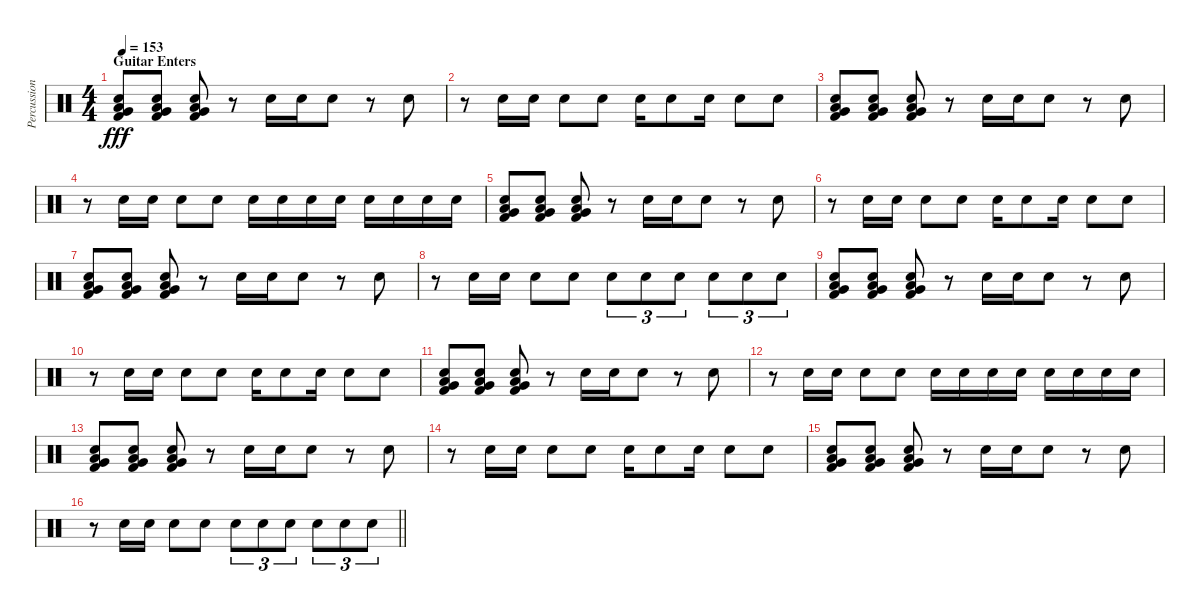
\track ("Percussion" "Percussion") {instrument percussion}
\staff {score}
\articulation defaults
\ts (4 4)
\section ("" "Guitar Enters")
\tempo 153
\clef neutral
\ks c
("Very Low Tom (hit)" "Low Floor Tom (hit)" "Kick (hit) 2" "Snare (hit) 2").8{dy fff} ("Very Low Tom (hit)" "Low Floor Tom (hit)" "Kick (hit) 2" "Snare (hit) 2").8 ("Very Low Tom (hit)" "Low Floor Tom (hit)" "Kick (hit) 2" "Snare (hit) 2").8 r.8 "Snare (hit) 2".16 "Snare (hit) 2".16 "Snare (hit) 2".8 r.8 "Snare (hit) 2".8 |
r.8 "Snare (hit) 2".16 "Snare (hit) 2".16 "Snare (hit) 2".8 "Snare (hit) 2".8 "Snare (hit) 2".16 "Snare (hit) 2".8 "Snare (hit) 2".16 "Snare (hit) 2".8 "Snare (hit) 2".8 |
("Very Low Tom (hit)" "Low Floor Tom (hit)" "Kick (hit) 2" "Snare (hit) 2").8 ("Very Low Tom (hit)" "Low Floor Tom (hit)" "Kick (hit) 2" "Snare (hit) 2").8 ("Very Low Tom (hit)" "Low Floor Tom (hit)" "Kick (hit) 2" "Snare (hit) 2").8 r.8 "Snare (hit) 2".16 "Snare (hit) 2".16 "Snare (hit) 2".8 r.8 "Snare (hit) 2".8 |
r.8 "Snare (hit) 2".16 "Snare (hit) 2".16 "Snare (hit) 2".8 "Snare (hit) 2".8 "Snare (hit) 2".16 "Snare (hit) 2".16 "Snare (hit) 2".16 "Snare (hit) 2".16 "Snare (hit) 2".16 "Snare (hit) 2".16 "Snare (hit) 2".16 "Snare (hit) 2".16 |
("Very Low Tom (hit)" "Low Floor Tom (hit)" "Kick (hit) 2" "Snare (hit) 2").8 ("Very Low Tom (hit)" "Low Floor Tom (hit)" "Kick (hit) 2" "Snare (hit) 2").8 ("Very Low Tom (hit)" "Low Floor Tom (hit)" "Kick (hit) 2" "Snare (hit) 2").8 r.8 "Snare (hit) 2".16 "Snare (hit) 2".16 "Snare (hit) 2".8 r.8 "Snare (hit) 2".8 |
r.8 "Snare (hit) 2".16 "Snare (hit) 2".16 "Snare (hit) 2".8 "Snare (hit) 2".8 "Snare (hit) 2".16 "Snare (hit) 2".8 "Snare (hit) 2".16 "Snare (hit) 2".8 "Snare (hit) 2".8 |
("Very Low Tom (hit)" "Low Floor Tom (hit)" "Kick (hit) 2" "Snare (hit) 2").8 ("Very Low Tom (hit)" "Low Floor Tom (hit)" "Kick (hit) 2" "Snare (hit) 2").8 ("Very Low Tom (hit)" "Low Floor Tom (hit)" "Kick (hit) 2" "Snare (hit) 2").8 r.8 "Snare (hit) 2".16 "Snare (hit) 2".16 "Snare (hit) 2".8 r.8 "Snare (hit) 2".8 |
r.8 "Snare (hit) 2".16 "Snare (hit) 2".16 "Snare (hit) 2".8 "Snare (hit) 2".8 "Snare (hit) 2".8{tu (3 2)} "Snare (hit) 2".8{tu (3 2)} "Snare (hit) 2".8{tu (3 2)} "Snare (hit) 2".8{tu (3 2)} "Snare (hit) 2".8{tu (3 2)} "Snare (hit) 2".8{tu (3 2)} |
("Very Low Tom (hit)" "Low Floor Tom (hit)" "Kick (hit) 2" "Snare (hit) 2").8 ("Very Low Tom (hit)" "Low Floor Tom (hit)" "Kick (hit) 2" "Snare (hit) 2").8 ("Very Low Tom (hit)" "Low Floor Tom (hit)" "Kick (hit) 2" "Snare (hit) 2").8 r.8 "Snare (hit) 2".16 "Snare (hit) 2".16 "Snare (hit) 2".8 r.8 "Snare (hit) 2".8 |
r.8 "Snare (hit) 2".16 "Snare (hit) 2".16 "Snare (hit) 2".8 "Snare (hit) 2".8 "Snare (hit) 2".16 "Snare (hit) 2".8 "Snare (hit) 2".16 "Snare (hit) 2".8 "Snare (hit) 2".8 |
("Very Low Tom (hit)" "Low Floor Tom (hit)" "Kick (hit) 2" "Snare (hit) 2").8 ("Very Low Tom (hit)" "Low Floor Tom (hit)" "Kick (hit) 2" "Snare (hit) 2").8 ("Very Low Tom (hit)" "Low Floor Tom (hit)" "Kick (hit) 2" "Snare (hit) 2").8 r.8 "Snare (hit) 2".16 "Snare (hit) 2".16 "Snare (hit) 2".8 r.8 "Snare (hit) 2".8 |
r.8 "Snare (hit) 2".16 "Snare (hit) 2".16 "Snare (hit) 2".8 "Snare (hit) 2".8 "Snare (hit) 2".16 "Snare (hit) 2".16 "Snare (hit) 2".16 "Snare (hit) 2".16 "Snare (hit) 2".16 "Snare (hit) 2".16 "Snare (hit) 2".16 "Snare (hit) 2".16 |
("Very Low Tom (hit)" "Low Floor Tom (hit)" "Kick (hit) 2" "Snare (hit) 2").8 ("Very Low Tom (hit)" "Low Floor Tom (hit)" "Kick (hit) 2" "Snare (hit) 2").8 ("Very Low Tom (hit)" "Low Floor Tom (hit)" "Kick (hit) 2" "Snare (hit) 2").8 r.8 "Snare (hit) 2".16 "Snare (hit) 2".16 "Snare (hit) 2".8 r.8 "Snare (hit) 2".8 |
r.8 "Snare (hit) 2".16 "Snare (hit) 2".16 "Snare (hit) 2".8 "Snare (hit) 2".8 "Snare (hit) 2".16 "Snare (hit) 2".8 "Snare (hit) 2".16 "Snare (hit) 2".8 "Snare (hit) 2".8 |
("Very Low Tom (hit)" "Low Floor Tom (hit)" "Kick (hit) 2" "Snare (hit) 2").8 ("Very Low Tom (hit)" "Low Floor Tom (hit)" "Kick (hit) 2" "Snare (hit) 2").8 ("Very Low Tom (hit)" "Low Floor Tom (hit)" "Kick (hit) 2" "Snare (hit) 2").8 r.8 "Snare (hit) 2".16 "Snare (hit) 2".16 "Snare (hit) 2".8 r.8 "Snare (hit) 2".8 |
\barLineRight lightlight
r.8 "Snare (hit) 2".16 "Snare (hit) 2".16 "Snare (hit) 2".8 "Snare (hit) 2".8 "Snare (hit) 2".8{tu (3 2)} "Snare (hit) 2".8{tu (3 2)} "Snare (hit) 2".8{tu (3 2)} "Snare (hit) 2".8{tu (3 2)} "Snare (hit) 2".8{tu (3 2)} "Snare (hit) 2".8{tu (3 2)}
